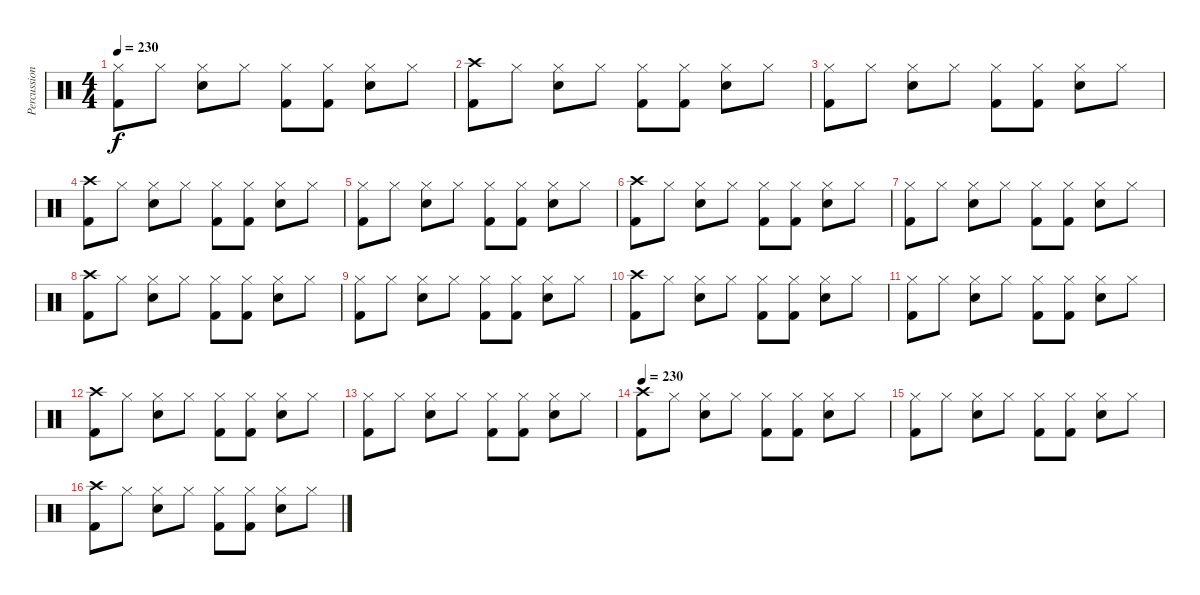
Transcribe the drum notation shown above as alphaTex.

\track ("Percussions" "Percussion") {instrument percussion}
\staff {score}
\articulation defaults
\ts (4 4)
\tempo 230
\clef neutral
\ks c
("Hi-Hat (closed)" "Kick (hit) 2").8{dy f} "Hi-Hat (closed)".8 ("Hi-Hat (closed)" "Electric Snare (hit)").8 "Hi-Hat (closed)".8 ("Hi-Hat (closed)" "Kick (hit) 2").8 ("Hi-Hat (closed)" "Kick (hit) 2").8 ("Hi-Hat (closed)" "Electric Snare (hit)").8 "Hi-Hat (closed)".8 |
("Crash high (hit)" "Kick (hit) 2").8 "Hi-Hat (closed)".8 ("Hi-Hat (closed)" "Electric Snare (hit)").8 "Hi-Hat (closed)".8 ("Hi-Hat (closed)" "Kick (hit) 2").8 ("Hi-Hat (closed)" "Kick (hit) 2").8 ("Hi-Hat (closed)" "Electric Snare (hit)").8 "Hi-Hat (closed)".8 |
("Hi-Hat (closed)" "Kick (hit) 2").8 "Hi-Hat (closed)".8 ("Hi-Hat (closed)" "Electric Snare (hit)").8 "Hi-Hat (closed)".8 ("Hi-Hat (closed)" "Kick (hit) 2").8 ("Hi-Hat (closed)" "Kick (hit) 2").8 ("Hi-Hat (closed)" "Electric Snare (hit)").8 "Hi-Hat (closed)".8 |
("Crash high (hit)" "Kick (hit) 2").8 "Hi-Hat (closed)".8 ("Hi-Hat (closed)" "Electric Snare (hit)").8 "Hi-Hat (closed)".8 ("Hi-Hat (closed)" "Kick (hit) 2").8 ("Hi-Hat (closed)" "Kick (hit) 2").8 ("Hi-Hat (closed)" "Electric Snare (hit)").8 "Hi-Hat (closed)".8 |
("Hi-Hat (closed)" "Kick (hit) 2").8 "Hi-Hat (closed)".8 ("Hi-Hat (closed)" "Electric Snare (hit)").8 "Hi-Hat (closed)".8 ("Hi-Hat (closed)" "Kick (hit) 2").8 ("Hi-Hat (closed)" "Kick (hit) 2").8 ("Hi-Hat (closed)" "Electric Snare (hit)").8 "Hi-Hat (closed)".8 |
("Crash high (hit)" "Kick (hit) 2").8 "Hi-Hat (closed)".8 ("Hi-Hat (closed)" "Electric Snare (hit)").8 "Hi-Hat (closed)".8 ("Hi-Hat (closed)" "Kick (hit) 2").8 ("Hi-Hat (closed)" "Kick (hit) 2").8 ("Hi-Hat (closed)" "Electric Snare (hit)").8 "Hi-Hat (closed)".8 |
("Hi-Hat (closed)" "Kick (hit) 2").8 "Hi-Hat (closed)".8 ("Hi-Hat (closed)" "Electric Snare (hit)").8 "Hi-Hat (closed)".8 ("Hi-Hat (closed)" "Kick (hit) 2").8 ("Hi-Hat (closed)" "Kick (hit) 2").8 ("Hi-Hat (closed)" "Electric Snare (hit)").8 "Hi-Hat (closed)".8 |
("Crash high (hit)" "Kick (hit) 2").8 "Hi-Hat (closed)".8 ("Hi-Hat (closed)" "Electric Snare (hit)").8 "Hi-Hat (closed)".8 ("Hi-Hat (closed)" "Kick (hit) 2").8 ("Hi-Hat (closed)" "Kick (hit) 2").8 ("Hi-Hat (closed)" "Electric Snare (hit)").8 "Hi-Hat (closed)".8 |
("Hi-Hat (closed)" "Kick (hit) 2").8 "Hi-Hat (closed)".8 ("Hi-Hat (closed)" "Electric Snare (hit)").8 "Hi-Hat (closed)".8 ("Hi-Hat (closed)" "Kick (hit) 2").8 ("Hi-Hat (closed)" "Kick (hit) 2").8 ("Hi-Hat (closed)" "Electric Snare (hit)").8 "Hi-Hat (closed)".8 |
("Crash high (hit)" "Kick (hit) 2").8 "Hi-Hat (closed)".8 ("Hi-Hat (closed)" "Electric Snare (hit)").8 "Hi-Hat (closed)".8 ("Hi-Hat (closed)" "Kick (hit) 2").8 ("Hi-Hat (closed)" "Kick (hit) 2").8 ("Hi-Hat (closed)" "Electric Snare (hit)").8 "Hi-Hat (closed)".8 |
("Hi-Hat (closed)" "Kick (hit) 2").8 "Hi-Hat (closed)".8 ("Hi-Hat (closed)" "Electric Snare (hit)").8 "Hi-Hat (closed)".8 ("Hi-Hat (closed)" "Kick (hit) 2").8 ("Hi-Hat (closed)" "Kick (hit) 2").8 ("Hi-Hat (closed)" "Electric Snare (hit)").8 "Hi-Hat (closed)".8 |
("Crash high (hit)" "Kick (hit) 2").8 "Hi-Hat (closed)".8 ("Hi-Hat (closed)" "Electric Snare (hit)").8 "Hi-Hat (closed)".8 ("Hi-Hat (closed)" "Kick (hit) 2").8 ("Hi-Hat (closed)" "Kick (hit) 2").8 ("Hi-Hat (closed)" "Electric Snare (hit)").8 "Hi-Hat (closed)".8 |
("Hi-Hat (closed)" "Kick (hit) 2").8 "Hi-Hat (closed)".8 ("Hi-Hat (closed)" "Electric Snare (hit)").8 "Hi-Hat (closed)".8 ("Hi-Hat (closed)" "Kick (hit) 2").8 ("Hi-Hat (closed)" "Kick (hit) 2").8 ("Hi-Hat (closed)" "Electric Snare (hit)").8 "Hi-Hat (closed)".8 |
\tempo 230
("Crash high (hit)" "Kick (hit) 2").8 "Hi-Hat (closed)".8 ("Hi-Hat (closed)" "Electric Snare (hit)").8 "Hi-Hat (closed)".8 ("Hi-Hat (closed)" "Kick (hit) 2").8 ("Hi-Hat (closed)" "Kick (hit) 2").8 ("Hi-Hat (closed)" "Electric Snare (hit)").8 "Hi-Hat (closed)".8 |
("Hi-Hat (closed)" "Kick (hit) 2").8 "Hi-Hat (closed)".8 ("Hi-Hat (closed)" "Electric Snare (hit)").8 "Hi-Hat (closed)".8 ("Hi-Hat (closed)" "Kick (hit) 2").8 ("Hi-Hat (closed)" "Kick (hit) 2").8 ("Hi-Hat (closed)" "Electric Snare (hit)").8 "Hi-Hat (closed)".8 |
("Crash high (hit)" "Kick (hit) 2").8 "Hi-Hat (closed)".8 ("Hi-Hat (closed)" "Electric Snare (hit)").8 "Hi-Hat (closed)".8 ("Hi-Hat (closed)" "Kick (hit) 2").8 ("Hi-Hat (closed)" "Kick (hit) 2").8 ("Hi-Hat (closed)" "Electric Snare (hit)").8 "Hi-Hat (closed)".8
